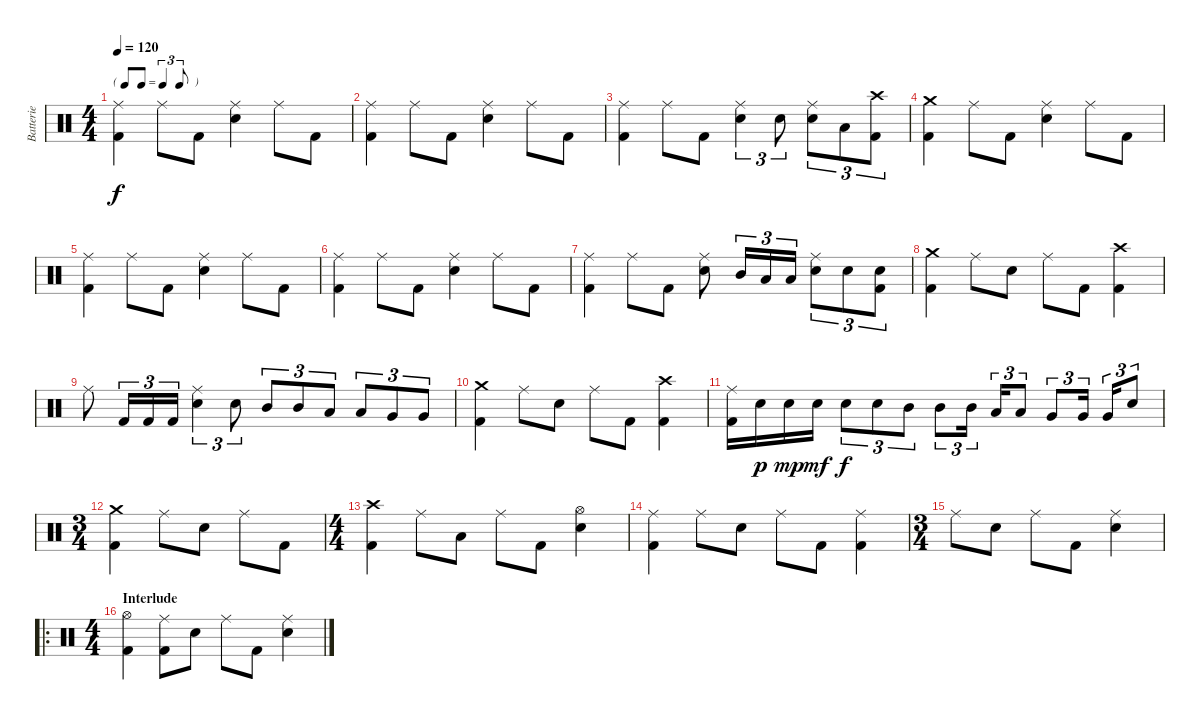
\track ("Batterie" "Batterie") {instrument percussion}
\staff {score}
\articulation defaults
\ts (4 4)
\tf triplet8th
\tempo 120
\clef neutral
\ks c
("Ride (middle)" "Kick (hit) 2").4{dy f} "Ride (middle)".8 "Kick (hit) 2".8 ("Ride (middle)" "Electric Snare (hit)").4 "Ride (middle)".8 "Kick (hit) 2".8 |
("Ride (middle)" "Kick (hit) 2").4 "Ride (middle)".8 "Kick (hit) 2".8 ("Ride (middle)" "Electric Snare (hit)").4 "Ride (middle)".8 "Kick (hit) 2".8 |
("Ride (middle)" "Kick (hit) 2").4 "Ride (middle)".8 "Kick (hit) 2".8 ("Ride (middle)" "Electric Snare (hit)").4{tu (3 2)} "Electric Snare (hit)".8{tu (3 2)} ("Ride (middle)" "Electric Snare (hit)").8{tu (3 2)} "Low Tom (hit)".8{tu (3 2)} ("Crash high (hit)" "Kick (hit) 2").8{tu (3 2)} |
("Crash medium (hit)" "Kick (hit) 2").4 "Ride (middle)".8 "Kick (hit) 2".8 ("Ride (middle)" "Electric Snare (hit)").4 "Ride (middle)".8 "Kick (hit) 2".8 |
("Ride (middle)" "Kick (hit) 2").4 "Ride (middle)".8 "Kick (hit) 2".8 ("Ride (middle)" "Electric Snare (hit)").4 "Ride (middle)".8 "Kick (hit) 2".8 |
("Ride (middle)" "Kick (hit) 2").4 "Ride (middle)".8 "Kick (hit) 2".8 ("Ride (middle)" "Electric Snare (hit)").4 "Ride (middle)".8 "Kick (hit) 2".8 |
("Ride (middle)" "Kick (hit) 2").4 "Ride (middle)".8 "Kick (hit) 2".8 ("Ride (middle)" "Electric Snare (hit)").8 "Mid Tom (hit)".16{tu (3 2)} "Low Tom (hit)".16{tu (3 2)} "Low Tom (hit)".16{tu (3 2)} ("Ride (middle)" "Electric Snare (hit)").8{tu (3 2)} "Electric Snare (hit)".8{tu (3 2)} ("Electric Snare (hit)" "Kick (hit) 2").8{tu (3 2)} |
("Crash medium (hit)" "Kick (hit) 2").4 "Ride (middle)".8 "Electric Snare (hit)".8 "Ride (middle)".8 "Kick (hit) 2".8 ("Crash high (hit)" "Kick (hit) 2").4 |
"Ride (middle)".8 "Kick (hit) 2".16{tu (3 2)} "Kick (hit) 2".16{tu (3 2)} "Kick (hit) 2".16{tu (3 2)} ("Ride (middle)" "Electric Snare (hit)").4{tu (3 2)} "Electric Snare (hit)".8{tu (3 2)} "Mid Tom (hit)".8{tu (3 2)} "Mid Tom (hit)".8{tu (3 2)} "Low Tom (hit)".8{tu (3 2)} "Low Tom (hit)".8{tu (3 2)} "Very Low Tom (hit)".8{tu (3 2)} "Very Low Tom (hit)".8{tu (3 2)} |
("Crash medium (hit)" "Kick (hit) 2").4 "Ride (middle)".8 "Electric Snare (hit)".8 "Ride (middle)".8 "Kick (hit) 2".8 ("Crash high (hit)" "Kick (hit) 2").4 |
("Ride (middle)" "Kick (hit) 2").16 "Electric Snare (hit)".16{dy p} "Electric Snare (hit)".16{dy mp} "Electric Snare (hit)".16{dy mf} "Electric Snare (hit)".8{tu (3 2) dy f} "Electric Snare (hit)".8{tu (3 2)} "Mid Tom (hit)".8{tu (3 2)} "Mid Tom (hit)".8{tu (3 2)} "Mid Tom (hit)".16{tu (3 2)} "Low Tom (hit)".16{tu (3 2)} "Low Tom (hit)".8{tu (3 2)} "Very Low Tom (hit)".8{tu (3 2)} "Very Low Tom (hit)".16{tu (3 2)} "Very Low Tom (hit)".16{tu (3 2)} "Snare (hit)".8{tu (3 2)} |
\ts (3 4)
("Crash medium (hit)" "Kick (hit) 2").4 "Ride (middle)".8 "Electric Snare (hit)".8 "Ride (middle)".8 "Kick (hit) 2".8 |
\ts (4 4)
("Crash high (hit)" "Kick (hit) 2").4 "Ride (middle)".8 "Low Tom (hit)".8 "Ride (middle)".8 "Kick (hit) 2".8 ("Hi-Hat (open)" "Electric Snare (hit)").4 |
("Ride (middle)" "Kick (hit) 2").4 "Ride (middle)".8 "Electric Snare (hit)".8 "Ride (middle)".8 "Kick (hit) 2".8 ("Ride (middle)" "Kick (hit) 2").4 |
\ts (3 4)
"Ride (middle)".8 "Electric Snare (hit)".8 "Ride (middle)".8 "Kick (hit) 2".8 ("Ride (middle)" "Electric Snare (hit)").4 |
\ro
\ts (4 4)
\section ("" "Interlude")
("Hi-Hat (open)" "Kick (hit) 2").4 ("Ride (middle)" "Kick (hit) 2").8 "Electric Snare (hit)".8 "Ride (middle)".8 "Kick (hit) 2".8 ("Ride (middle)" "Electric Snare (hit)").4
